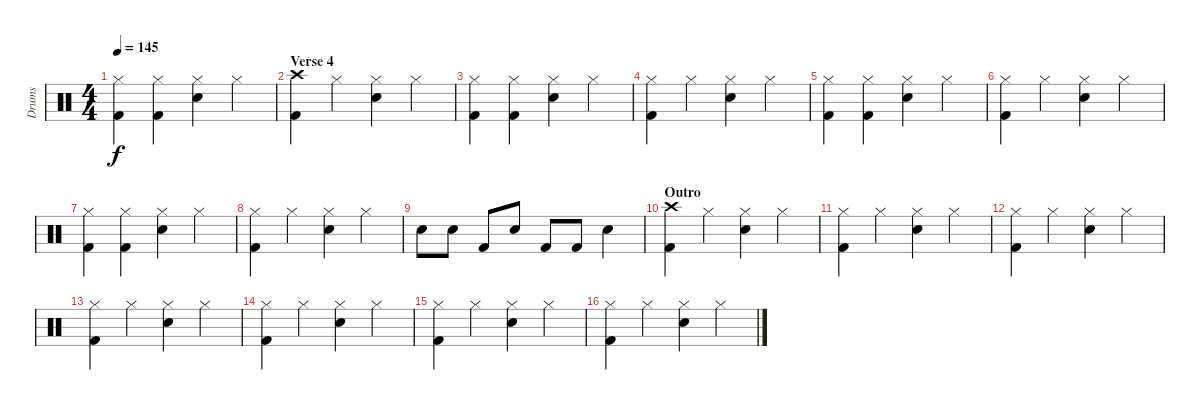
\track ("Drums" "Drums") {instrument percussion}
\staff {score}
\articulation defaults
\ts (4 4)
\tempo 145
\clef neutral
\ks c
("Hi-Hat (closed)" "Kick (hit) 2").4{dy f} ("Hi-Hat (closed)" "Kick (hit) 2").4 ("Hi-Hat (closed)" "Electric Snare (hit)").4 "Hi-Hat (closed)".4 |
\section ("" "Verse 4")
("Crash high (hit)" "Kick (hit) 2").4 "Hi-Hat (closed)".4 ("Hi-Hat (closed)" "Electric Snare (hit)").4 "Hi-Hat (closed)".4 |
("Hi-Hat (closed)" "Kick (hit) 2").4 ("Hi-Hat (closed)" "Kick (hit) 2").4 ("Hi-Hat (closed)" "Electric Snare (hit)").4 "Hi-Hat (closed)".4 |
("Hi-Hat (closed)" "Kick (hit) 2").4 "Hi-Hat (closed)".4 ("Hi-Hat (closed)" "Electric Snare (hit)").4 "Hi-Hat (closed)".4 |
("Hi-Hat (closed)" "Kick (hit) 2").4 ("Hi-Hat (closed)" "Kick (hit) 2").4 ("Hi-Hat (closed)" "Electric Snare (hit)").4 "Hi-Hat (closed)".4 |
("Hi-Hat (closed)" "Kick (hit) 2").4 "Hi-Hat (closed)".4 ("Hi-Hat (closed)" "Electric Snare (hit)").4 "Hi-Hat (closed)".4 |
("Hi-Hat (closed)" "Kick (hit) 2").4 ("Hi-Hat (closed)" "Kick (hit) 2").4 ("Hi-Hat (closed)" "Electric Snare (hit)").4 "Hi-Hat (closed)".4 |
("Hi-Hat (closed)" "Kick (hit) 2").4 "Hi-Hat (closed)".4 ("Hi-Hat (closed)" "Electric Snare (hit)").4 "Hi-Hat (closed)".4 |
"Electric Snare (hit)".8 "Electric Snare (hit)".8 "Kick (hit) 2".8 "Electric Snare (hit)".8 "Kick (hit) 2".8 "Kick (hit) 2".8 "Electric Snare (hit)".4 |
\section ("" "Outro")
("Crash high (hit)" "Kick (hit) 2").4 "Hi-Hat (closed)".4 ("Hi-Hat (closed)" "Electric Snare (hit)").4 "Hi-Hat (closed)".4 |
("Hi-Hat (closed)" "Kick (hit) 2").4 "Hi-Hat (closed)".4 ("Hi-Hat (closed)" "Electric Snare (hit)").4 "Hi-Hat (closed)".4 |
("Hi-Hat (closed)" "Kick (hit) 2").4 "Hi-Hat (closed)".4 ("Hi-Hat (closed)" "Electric Snare (hit)").4 "Hi-Hat (closed)".4 |
("Hi-Hat (closed)" "Kick (hit) 2").4 "Hi-Hat (closed)".4 ("Hi-Hat (closed)" "Electric Snare (hit)").4 "Hi-Hat (closed)".4 |
("Hi-Hat (closed)" "Kick (hit) 2").4 "Hi-Hat (closed)".4 ("Hi-Hat (closed)" "Electric Snare (hit)").4 "Hi-Hat (closed)".4 |
("Hi-Hat (closed)" "Kick (hit) 2").4 "Hi-Hat (closed)".4 ("Hi-Hat (closed)" "Electric Snare (hit)").4 "Hi-Hat (closed)".4 |
("Hi-Hat (closed)" "Kick (hit) 2").4 "Hi-Hat (closed)".4 ("Hi-Hat (closed)" "Electric Snare (hit)").4 "Hi-Hat (closed)".4
